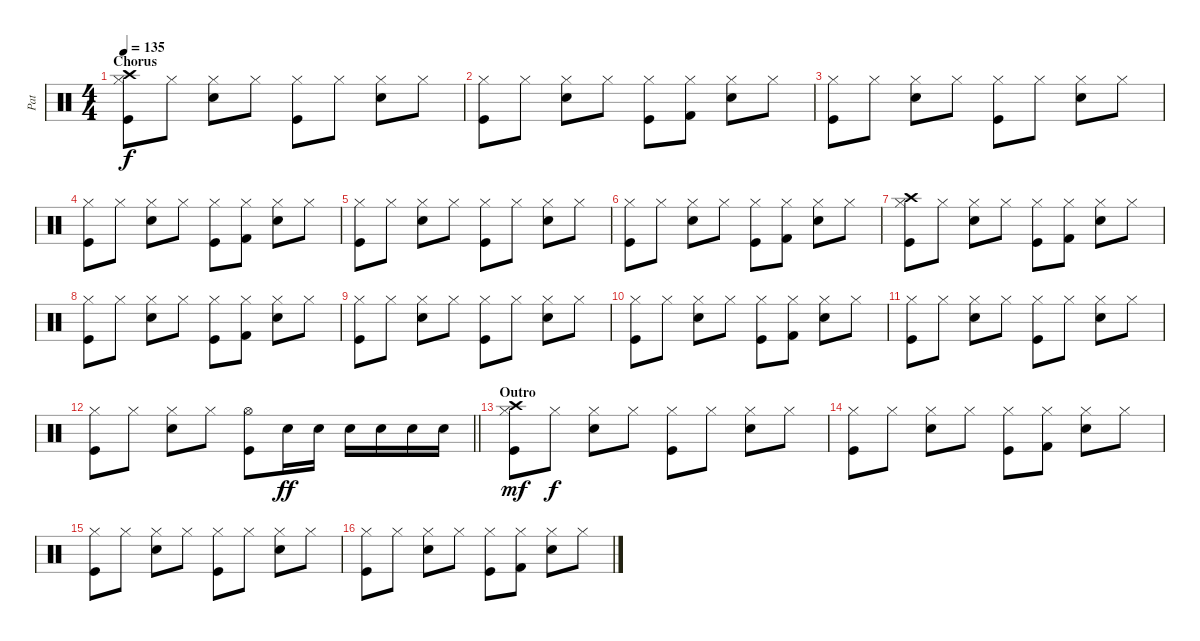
\track ("Pat" "Pat") {instrument percussion}
\staff {score}
\articulation defaults
\ts (4 4)
\section ("" "Chorus")
\tempo 135
\clef neutral
\ks c
("Crash high (hit)" "Hi-Hat (closed)" "Kick (hit)").8{dy f} "Hi-Hat (closed)".8 ("Hi-Hat (closed)" "Snare (hit) 2").8 "Hi-Hat (closed)".8 ("Hi-Hat (closed)" "Kick (hit)").8 "Hi-Hat (closed)".8 ("Hi-Hat (closed)" "Snare (hit) 2").8 "Hi-Hat (closed)".8 |
("Hi-Hat (closed)" "Kick (hit)").8 "Hi-Hat (closed)".8 ("Hi-Hat (closed)" "Snare (hit) 2").8 "Hi-Hat (closed)".8 ("Hi-Hat (closed)" "Kick (hit)").8 ("Hi-Hat (closed)" "Kick (hit) 2").8 ("Hi-Hat (closed)" "Snare (hit) 2").8 "Hi-Hat (closed)".8 |
("Hi-Hat (closed)" "Kick (hit)").8 "Hi-Hat (closed)".8 ("Hi-Hat (closed)" "Snare (hit) 2").8 "Hi-Hat (closed)".8 ("Hi-Hat (closed)" "Kick (hit)").8 "Hi-Hat (closed)".8 ("Hi-Hat (closed)" "Snare (hit) 2").8 "Hi-Hat (closed)".8 |
("Hi-Hat (closed)" "Kick (hit)").8 "Hi-Hat (closed)".8 ("Hi-Hat (closed)" "Snare (hit) 2").8 "Hi-Hat (closed)".8 ("Hi-Hat (closed)" "Kick (hit)").8 ("Hi-Hat (closed)" "Kick (hit) 2").8 ("Hi-Hat (closed)" "Snare (hit) 2").8 "Hi-Hat (closed)".8 |
("Hi-Hat (closed)" "Kick (hit)").8 "Hi-Hat (closed)".8 ("Hi-Hat (closed)" "Snare (hit) 2").8 "Hi-Hat (closed)".8 ("Hi-Hat (closed)" "Kick (hit)").8 "Hi-Hat (closed)".8 ("Hi-Hat (closed)" "Snare (hit) 2").8 "Hi-Hat (closed)".8 |
("Hi-Hat (closed)" "Kick (hit)").8 "Hi-Hat (closed)".8 ("Hi-Hat (closed)" "Snare (hit) 2").8 "Hi-Hat (closed)".8 ("Hi-Hat (closed)" "Kick (hit)").8 ("Hi-Hat (closed)" "Kick (hit) 2").8 ("Hi-Hat (closed)" "Snare (hit) 2").8 "Hi-Hat (closed)".8 |
("Crash high (hit)" "Hi-Hat (closed)" "Kick (hit)").8 "Hi-Hat (closed)".8 ("Hi-Hat (closed)" "Snare (hit) 2").8 "Hi-Hat (closed)".8 ("Hi-Hat (closed)" "Kick (hit)").8 ("Hi-Hat (closed)" "Kick (hit) 2").8 ("Hi-Hat (closed)" "Snare (hit) 2").8 "Hi-Hat (closed)".8 |
("Hi-Hat (closed)" "Kick (hit)").8 "Hi-Hat (closed)".8 ("Hi-Hat (closed)" "Snare (hit) 2").8 "Hi-Hat (closed)".8 ("Hi-Hat (closed)" "Kick (hit)").8 ("Hi-Hat (closed)" "Kick (hit) 2").8 ("Hi-Hat (closed)" "Snare (hit) 2").8 "Hi-Hat (closed)".8 |
("Hi-Hat (closed)" "Kick (hit)").8 "Hi-Hat (closed)".8 ("Hi-Hat (closed)" "Snare (hit) 2").8 "Hi-Hat (closed)".8 ("Hi-Hat (closed)" "Kick (hit)").8 "Hi-Hat (closed)".8 ("Hi-Hat (closed)" "Snare (hit) 2").8 "Hi-Hat (closed)".8 |
("Hi-Hat (closed)" "Kick (hit)").8 "Hi-Hat (closed)".8 ("Hi-Hat (closed)" "Snare (hit) 2").8 "Hi-Hat (closed)".8 ("Hi-Hat (closed)" "Kick (hit)").8 ("Hi-Hat (closed)" "Kick (hit) 2").8 ("Hi-Hat (closed)" "Snare (hit) 2").8 "Hi-Hat (closed)".8 |
("Hi-Hat (closed)" "Kick (hit)").8 "Hi-Hat (closed)".8 ("Hi-Hat (closed)" "Snare (hit) 2").8 "Hi-Hat (closed)".8 ("Hi-Hat (closed)" "Kick (hit)").8 "Hi-Hat (closed)".8 ("Hi-Hat (closed)" "Snare (hit) 2").8 "Hi-Hat (closed)".8 |
\barLineRight lightlight
("Hi-Hat (closed)" "Kick (hit)").8 "Hi-Hat (closed)".8 ("Hi-Hat (closed)" "Snare (hit) 2").8 "Hi-Hat (closed)".8 ("Hi-Hat (open)" "Kick (hit)").8 "Snare (hit) 2".16{dy ff} "Snare (hit) 2".16 "Snare (hit) 2".16 "Snare (hit) 2".16 "Snare (hit) 2".16 "Snare (hit) 2".16 |
\section ("" "Outro")
("Crash high (hit)" "Hi-Hat (closed)" "Kick (hit)").8{dy mf} "Hi-Hat (closed)".8{dy f} ("Hi-Hat (closed)" "Snare (hit) 2").8 "Hi-Hat (closed)".8 ("Hi-Hat (closed)" "Kick (hit)").8 "Hi-Hat (closed)".8 ("Hi-Hat (closed)" "Snare (hit) 2").8 "Hi-Hat (closed)".8 |
("Hi-Hat (closed)" "Kick (hit)").8 "Hi-Hat (closed)".8 ("Hi-Hat (closed)" "Snare (hit) 2").8 "Hi-Hat (closed)".8 ("Hi-Hat (closed)" "Kick (hit)").8 ("Hi-Hat (closed)" "Kick (hit) 2").8 ("Hi-Hat (closed)" "Snare (hit) 2").8 "Hi-Hat (closed)".8 |
("Hi-Hat (closed)" "Kick (hit)").8 "Hi-Hat (closed)".8 ("Hi-Hat (closed)" "Snare (hit) 2").8 "Hi-Hat (closed)".8 ("Hi-Hat (closed)" "Kick (hit)").8 "Hi-Hat (closed)".8 ("Hi-Hat (closed)" "Snare (hit) 2").8 "Hi-Hat (closed)".8 |
("Hi-Hat (closed)" "Kick (hit)").8 "Hi-Hat (closed)".8 ("Hi-Hat (closed)" "Snare (hit) 2").8 "Hi-Hat (closed)".8 ("Hi-Hat (closed)" "Kick (hit)").8 ("Hi-Hat (closed)" "Kick (hit) 2").8 ("Hi-Hat (closed)" "Snare (hit) 2").8 "Hi-Hat (closed)".8
